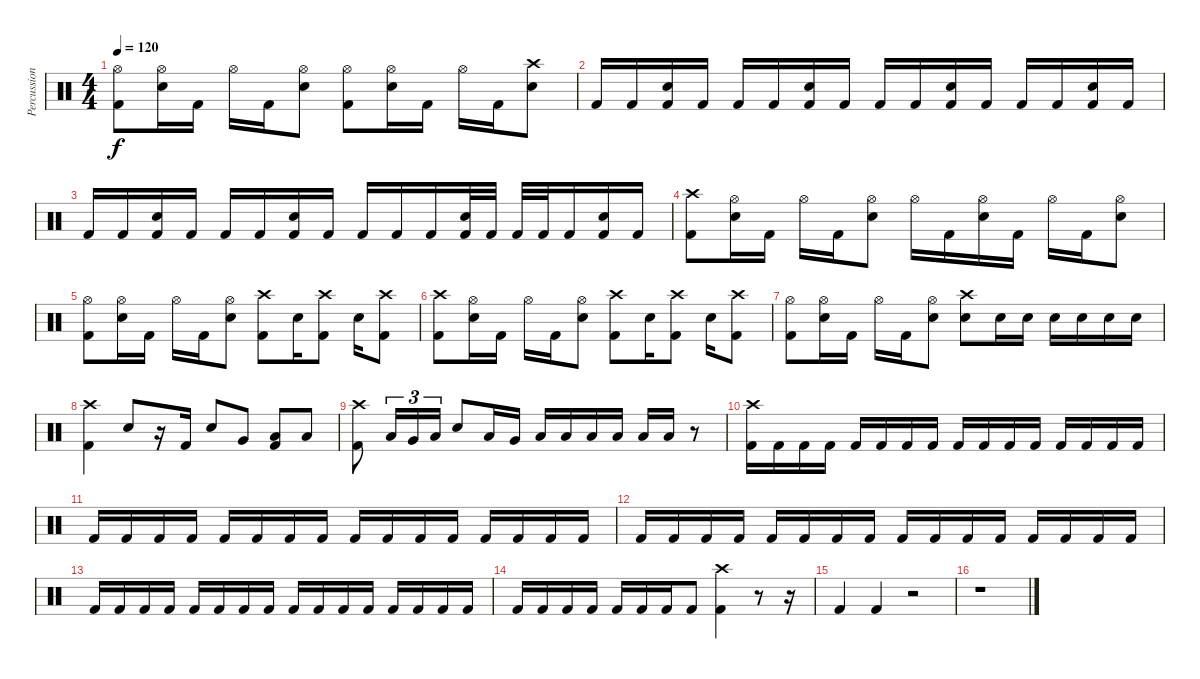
\track ("Percussion" "Percussion") {instrument percussion}
\staff {score}
\articulation defaults
\ts (4 4)
\tempo 120
\clef neutral
\ks c
("Hi-Hat (open)" "Kick (hit) 2").8{dy f} ("Hi-Hat (open)" "Snare (hit) 2").16 "Kick (hit) 2".16 "Hi-Hat (open)".16 "Kick (hit) 2".16 ("Hi-Hat (open)" "Snare (hit) 2").8 ("Hi-Hat (open)" "Kick (hit) 2").8 ("Hi-Hat (open)" "Snare (hit) 2").16 "Kick (hit) 2".16 "Hi-Hat (open)".16 "Kick (hit) 2".16 ("Crash high (hit)" "Snare (hit) 2").8 |
"Kick (hit) 2".16 "Kick (hit) 2".16 ("Snare (hit) 2" "Kick (hit) 2").16 "Kick (hit) 2".16 "Kick (hit) 2".16 "Kick (hit) 2".16 ("Snare (hit) 2" "Kick (hit) 2").16 "Kick (hit) 2".16 "Kick (hit) 2".16 "Kick (hit) 2".16 ("Snare (hit) 2" "Kick (hit) 2").16 "Kick (hit) 2".16 "Kick (hit) 2".16 "Kick (hit) 2".16 ("Snare (hit) 2" "Kick (hit) 2").16 "Kick (hit) 2".16 |
"Kick (hit) 2".16 "Kick (hit) 2".16 ("Snare (hit) 2" "Kick (hit) 2").16 "Kick (hit) 2".16 "Kick (hit) 2".16 "Kick (hit) 2".16 ("Snare (hit) 2" "Kick (hit) 2").16 "Kick (hit) 2".16 "Kick (hit) 2".16 "Kick (hit) 2".16 "Kick (hit) 2".16 ("Snare (hit) 2" "Kick (hit) 2").32 "Kick (hit) 2".32 "Kick (hit) 2".32 "Kick (hit) 2".32 "Kick (hit) 2".16 ("Snare (hit) 2" "Kick (hit) 2").16 "Kick (hit) 2".16 |
("Crash high (hit)" "Kick (hit) 2").8 ("Hi-Hat (open)" "Snare (hit) 2").16 "Kick (hit) 2".16 "Hi-Hat (open)".16 "Kick (hit) 2".16 ("Hi-Hat (open)" "Snare (hit) 2").8 "Hi-Hat (open)".16 "Kick (hit) 2".16 ("Hi-Hat (open)" "Snare (hit) 2").16 "Kick (hit) 2".16 "Hi-Hat (open)".16 "Kick (hit) 2".16 ("Hi-Hat (open)" "Snare (hit) 2").8 |
("Hi-Hat (open)" "Kick (hit) 2").8 ("Hi-Hat (open)" "Snare (hit) 2").16 "Kick (hit) 2".16 "Hi-Hat (open)".16 "Kick (hit) 2".16 ("Hi-Hat (open)" "Snare (hit) 2").8 ("Crash high (hit)" "Kick (hit) 2").8 "Snare (hit) 2".16 ("Crash high (hit)" "Kick (hit) 2").8 "Snare (hit) 2".16 ("Crash high (hit)" "Kick (hit) 2").8 |
("Crash high (hit)" "Kick (hit) 2").8 ("Hi-Hat (open)" "Snare (hit) 2").16 "Kick (hit) 2".16 "Hi-Hat (open)".16 "Kick (hit) 2".16 ("Hi-Hat (open)" "Snare (hit) 2").8 ("Crash high (hit)" "Kick (hit) 2").8 "Snare (hit) 2".16 ("Crash high (hit)" "Kick (hit) 2").8 "Snare (hit) 2".16 ("Crash high (hit)" "Kick (hit) 2").8 |
("Hi-Hat (open)" "Kick (hit) 2").8 ("Hi-Hat (open)" "Snare (hit) 2").16 "Kick (hit) 2".16 "Hi-Hat (open)".16 "Kick (hit) 2".16 ("Hi-Hat (open)" "Snare (hit) 2").8 ("Crash high (hit)" "Snare (hit) 2").8 "Snare (hit) 2".16 "Snare (hit) 2".16 "Snare (hit) 2".16 "Snare (hit) 2".16 "Snare (hit) 2".16 "Snare (hit) 2".16 |
("Crash high (hit)" "Kick (hit) 2").4 "Snare (hit) 2".8 r.16 "Kick (hit) 2".16 "Snare (hit) 2".8 "Very Low Tom (hit)".8 ("Low Floor Tom (hit)" "Kick (hit) 2").8 "Low Floor Tom (hit)".8 |
("Crash high (hit)" "Kick (hit) 2").8 "Low Tom (hit)".16{tu (3 2)} "Very Low Tom (hit)".16{tu (3 2)} "Low Floor Tom (hit)".16{tu (3 2)} "Snare (hit) 2".8 "Low Tom (hit)".16 "Very Low Tom (hit)".16 "Low Floor Tom (hit)".16 "Low Floor Tom (hit)".16 "Low Floor Tom (hit)".16 "Low Floor Tom (hit)".16 "Low Floor Tom (hit)".16 "Low Floor Tom (hit)".16 r.8 |
("Crash high (hit)" "Kick (hit) 2").16 "Kick (hit) 2".16 "Kick (hit) 2".16 "Kick (hit) 2".16 "Kick (hit) 2".16 "Kick (hit) 2".16 "Kick (hit) 2".16 "Kick (hit) 2".16 "Kick (hit) 2".16 "Kick (hit) 2".16 "Kick (hit) 2".16 "Kick (hit) 2".16 "Kick (hit) 2".16 "Kick (hit) 2".16 "Kick (hit) 2".16 "Kick (hit) 2".16 |
"Kick (hit) 2".16 "Kick (hit) 2".16 "Kick (hit) 2".16 "Kick (hit) 2".16 "Kick (hit) 2".16 "Kick (hit) 2".16 "Kick (hit) 2".16 "Kick (hit) 2".16 "Kick (hit) 2".16 "Kick (hit) 2".16 "Kick (hit) 2".16 "Kick (hit) 2".16 "Kick (hit) 2".16 "Kick (hit) 2".16 "Kick (hit) 2".16 "Kick (hit) 2".16 |
"Kick (hit) 2".16 "Kick (hit) 2".16 "Kick (hit) 2".16 "Kick (hit) 2".16 "Kick (hit) 2".16 "Kick (hit) 2".16 "Kick (hit) 2".16 "Kick (hit) 2".16 "Kick (hit) 2".16 "Kick (hit) 2".16 "Kick (hit) 2".16 "Kick (hit) 2".16 "Kick (hit) 2".16 "Kick (hit) 2".16 "Kick (hit) 2".16 "Kick (hit) 2".16 |
"Kick (hit) 2".16 "Kick (hit) 2".16 "Kick (hit) 2".16 "Kick (hit) 2".16 "Kick (hit) 2".16 "Kick (hit) 2".16 "Kick (hit) 2".16 "Kick (hit) 2".16 "Kick (hit) 2".16 "Kick (hit) 2".16 "Kick (hit) 2".16 "Kick (hit) 2".16 "Kick (hit) 2".16 "Kick (hit) 2".16 "Kick (hit) 2".16 "Kick (hit) 2".16 |
"Kick (hit) 2".16 "Kick (hit) 2".16 "Kick (hit) 2".16 "Kick (hit) 2".16 "Kick (hit) 2".16 "Kick (hit) 2".16 "Kick (hit) 2".16 "Kick (hit) 2".8 ("Crash high (hit)" "Kick (hit) 2").4 r.8 r.16 |
"Kick (hit) 2".4 "Kick (hit) 2".4 r.2 |
r.1
